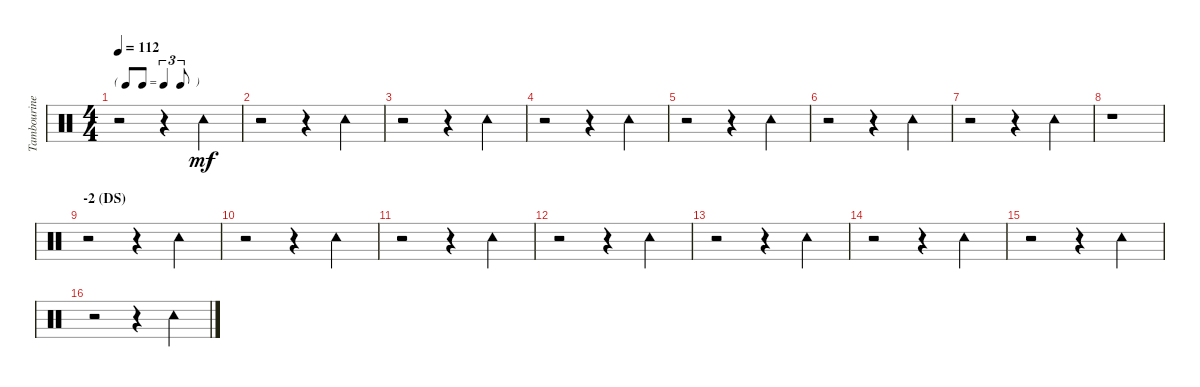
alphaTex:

\track ("Tambourine" "Tambourine") {instrument percussion}
\staff {score}
\articulation defaults
\ts (4 4)
\tf triplet8th
\section ("" "")
\tempo 112
\clef neutral
\ks c
r.2{dy mf} r.4 "Tambourine (hit)".4 |
r.2 r.4 "Tambourine (hit)".4 |
r.2 r.4 "Tambourine (hit)".4 |
r.2 r.4 "Tambourine (hit)".4 |
r.2 r.4 "Tambourine (hit)".4 |
r.2 r.4 "Tambourine (hit)".4 |
r.2 r.4 "Tambourine (hit)".4 |
r.1 |
\section ("" "-2 (DS)")
r.2 r.4 "Tambourine (hit)".4 |
r.2 r.4 "Tambourine (hit)".4 |
r.2 r.4 "Tambourine (hit)".4 |
r.2 r.4 "Tambourine (hit)".4 |
r.2 r.4 "Tambourine (hit)".4 |
r.2 r.4 "Tambourine (hit)".4 |
r.2 r.4 "Tambourine (hit)".4 |
r.2 r.4 "Tambourine (hit)".4
